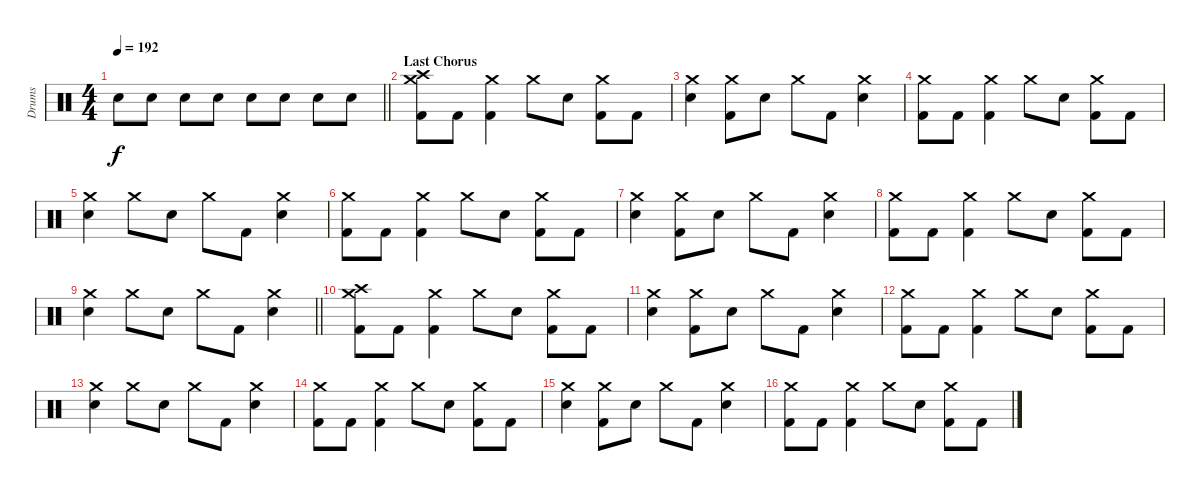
\track ("Drums" "Drums") {instrument percussion}
\staff {score}
\articulation defaults
\ts (4 4)
\tempo 192
\clef neutral
\barLineRight lightlight
\ks c "Electric Snare (hit)".8{dy f} "Electric Snare (hit)".8 "Electric Snare (hit)".8 "Electric Snare (hit)".8 "Electric Snare (hit)".8 "Electric Snare (hit)".8 "Electric Snare (hit)".8 "Electric Snare (hit)".8
|
\section ("" "Last Chorus")
("Crash high (hit)" "Crash medium (hit)" "Kick (hit) 2").8 "Kick (hit) 2".8 ("Crash medium (hit)" "Kick (hit) 2").4 "Crash medium (hit)".8 "Electric Snare (hit)".8 ("Crash medium (hit)" "Kick (hit) 2").8 "Kick (hit) 2".8 |
("Crash medium (hit)" "Electric Snare (hit)").4 ("Crash medium (hit)" "Kick (hit) 2").8 "Electric Snare (hit)".8 "Crash medium (hit)".8 "Kick (hit) 2".8 ("Crash medium (hit)" "Electric Snare (hit)").4 |
("Crash medium (hit)" "Kick (hit) 2").8 "Kick (hit) 2".8 ("Crash medium (hit)" "Kick (hit) 2").4 "Crash medium (hit)".8 "Electric Snare (hit)".8 ("Crash medium (hit)" "Kick (hit) 2").8 "Kick (hit) 2".8 |
("Crash medium (hit)" "Electric Snare (hit)").4 "Crash medium (hit)".8 "Electric Snare (hit)".8 "Crash medium (hit)".8 "Kick (hit) 2".8 ("Crash medium (hit)" "Electric Snare (hit)").4 |
("Crash medium (hit)" "Kick (hit) 2").8 "Kick (hit) 2".8 ("Crash medium (hit)" "Kick (hit) 2").4 "Crash medium (hit)".8 "Electric Snare (hit)".8 ("Crash medium (hit)" "Kick (hit) 2").8 "Kick (hit) 2".8 |
("Crash medium (hit)" "Electric Snare (hit)").4 ("Crash medium (hit)" "Kick (hit) 2").8 "Electric Snare (hit)".8 "Crash medium (hit)".8 "Kick (hit) 2".8 ("Crash medium (hit)" "Electric Snare (hit)").4 |
("Crash medium (hit)" "Kick (hit) 2").8 "Kick (hit) 2".8 ("Crash medium (hit)" "Kick (hit) 2").4 "Crash medium (hit)".8 "Electric Snare (hit)".8 ("Crash medium (hit)" "Kick (hit) 2").8 "Kick (hit) 2".8 |
\barLineRight lightlight
("Crash medium (hit)" "Electric Snare (hit)").4 "Crash medium (hit)".8 "Electric Snare (hit)".8 "Crash medium (hit)".8 "Kick (hit) 2".8 ("Crash medium (hit)" "Electric Snare (hit)").4 |
\section ("" "")
("Crash high (hit)" "Crash medium (hit)" "Kick (hit) 2").8 "Kick (hit) 2".8 ("Crash medium (hit)" "Kick (hit) 2").4 "Crash medium (hit)".8 "Electric Snare (hit)".8 ("Crash medium (hit)" "Kick (hit) 2").8 "Kick (hit) 2".8 |
("Crash medium (hit)" "Electric Snare (hit)").4 ("Crash medium (hit)" "Kick (hit) 2").8 "Electric Snare (hit)".8 "Crash medium (hit)".8 "Kick (hit) 2".8 ("Crash medium (hit)" "Electric Snare (hit)").4 |
("Crash medium (hit)" "Kick (hit) 2").8 "Kick (hit) 2".8 ("Crash medium (hit)" "Kick (hit) 2").4 "Crash medium (hit)".8 "Electric Snare (hit)".8 ("Crash medium (hit)" "Kick (hit) 2").8 "Kick (hit) 2".8 |
("Crash medium (hit)" "Electric Snare (hit)").4 "Crash medium (hit)".8 "Electric Snare (hit)".8 "Crash medium (hit)".8 "Kick (hit) 2".8 ("Crash medium (hit)" "Electric Snare (hit)").4 |
("Crash medium (hit)" "Kick (hit) 2").8 "Kick (hit) 2".8 ("Crash medium (hit)" "Kick (hit) 2").4 "Crash medium (hit)".8 "Electric Snare (hit)".8 ("Crash medium (hit)" "Kick (hit) 2").8 "Kick (hit) 2".8 |
("Crash medium (hit)" "Electric Snare (hit)").4 ("Crash medium (hit)" "Kick (hit) 2").8 "Electric Snare (hit)".8 "Crash medium (hit)".8 "Kick (hit) 2".8 ("Crash medium (hit)" "Electric Snare (hit)").4 |
("Crash medium (hit)" "Kick (hit) 2").8 "Kick (hit) 2".8 ("Crash medium (hit)" "Kick (hit) 2").4 "Crash medium (hit)".8 "Electric Snare (hit)".8 ("Crash medium (hit)" "Kick (hit) 2").8 "Kick (hit) 2".8
